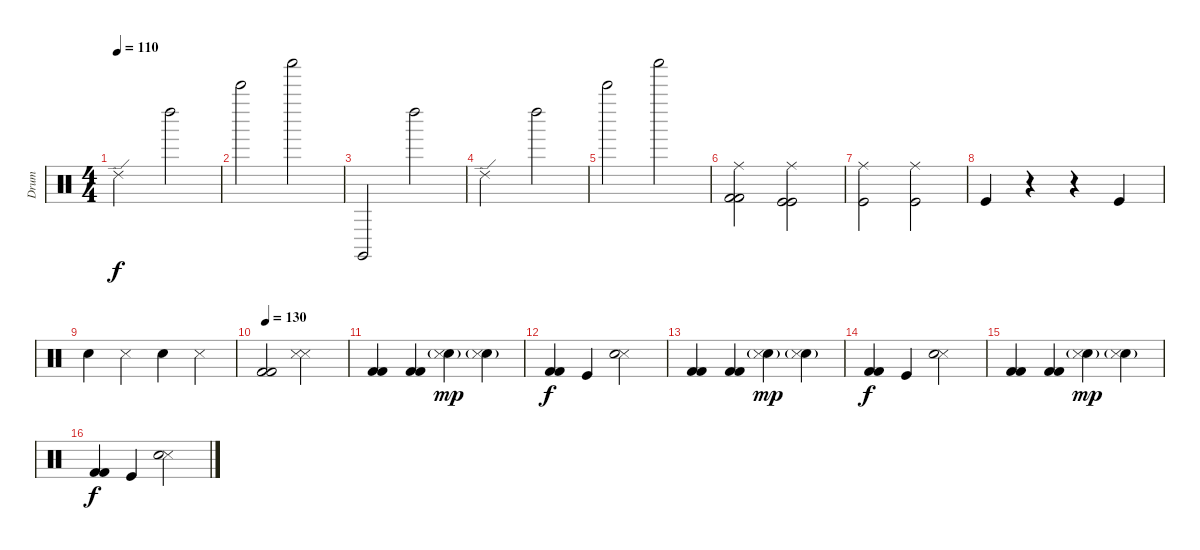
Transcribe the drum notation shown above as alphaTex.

\track ("Drum" "Drum") {instrument percussion}
\staff {score}
\articulation defaults
\ts (4 4)
\tempo 110
\clef neutral
\ks c "Ride (edge) 2".2{dy f} "Left Maraca (hit)".2
|
"Bell Tree (hit)".2 "Shaker (hit)".2 |
"Claves (hit)".2 "Left Maraca (hit)".2 |
"Ride (edge) 2".2 "Left Maraca (hit)".2 |
"Bell Tree (hit)".2 "Shaker (hit)".2 |
("Kick (hit) 2" "Ride (middle)" "Kick (hit) 2").2 ("Kick (hit)" "Ride (middle)" "Kick (hit)").2 |
("Kick (hit)" "Ride (middle)").2 ("Kick (hit)" "Ride (middle)").2 |
"Kick (hit)".4 r.4 r.4 "Kick (hit)".4 |
"Snare (hit) 2".4 "Snare (side stick) 3".4 "Snare (hit) 2".4 "Snare (side stick) 3".4 |
\tempo 130
("Kick (hit) 2" "Kick (hit) 2").2 ("Snare (side stick) 3" "Snare (side stick) 3").2 |
("Kick (hit) 2" "Kick (hit) 2").4 ("Kick (hit) 2" "Kick (hit) 2").4 ("Snare (hit) 2" "Snare (side stick) 3"{g}).4{dy mp} ("Snare (hit) 2"{g} "Snare (side stick) 3").4 |
("Kick (hit) 2" "Kick (hit) 2").4{dy f} "Kick (hit)".4 ("Snare (side stick) 3" "Snare (hit) 2").2 |
("Kick (hit) 2" "Kick (hit) 2").4 ("Kick (hit) 2" "Kick (hit) 2").4 ("Snare (hit) 2" "Snare (side stick) 3"{g}).4{dy mp} ("Snare (hit) 2"{g} "Snare (side stick) 3").4 |
("Kick (hit) 2" "Kick (hit) 2").4{dy f} "Kick (hit)".4 ("Snare (side stick) 3" "Snare (hit) 2").2 |
("Kick (hit) 2" "Kick (hit) 2").4 ("Kick (hit) 2" "Kick (hit) 2").4 ("Snare (hit) 2" "Snare (side stick) 3"{g}).4{dy mp} ("Snare (hit) 2"{g} "Snare (side stick) 3").4 |
("Kick (hit) 2" "Kick (hit) 2").4{dy f} "Kick (hit)".4 ("Snare (side stick) 3" "Snare (hit) 2").2
